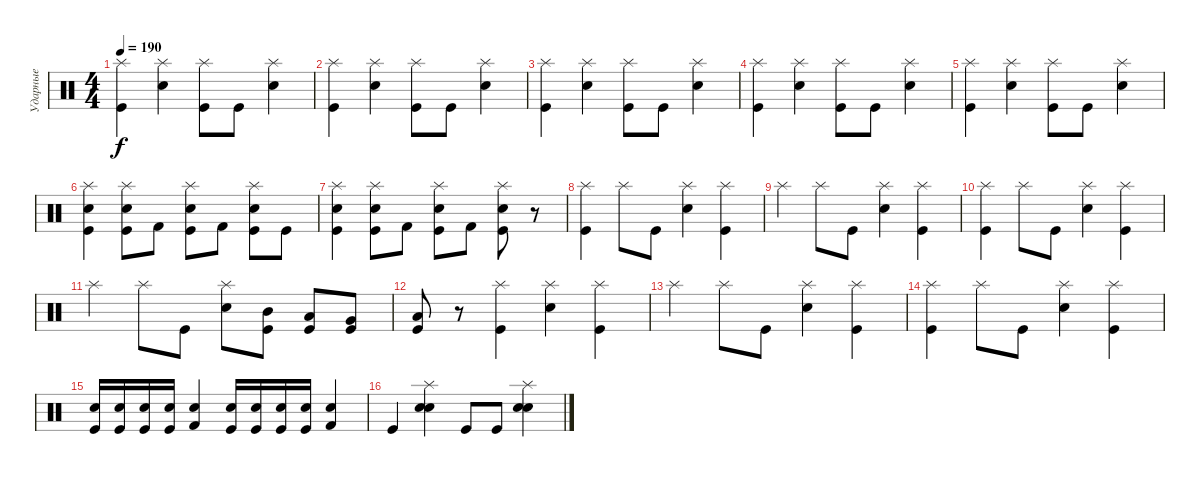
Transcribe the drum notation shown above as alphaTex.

\track ("Ударные" "Ударные") {instrument percussion}
\staff {score}
\articulation defaults
\ts (4 4)
\tempo 190
\clef neutral
\ks c
("Splash (hit)" "Kick (hit)").4{dy f} ("Splash (hit)" "Electric Snare (hit)").4 ("Splash (hit)" "Kick (hit)").8 "Kick (hit)".8 ("Splash (hit)" "Electric Snare (hit)").4 |
("Splash (hit)" "Kick (hit)").4 ("Splash (hit)" "Electric Snare (hit)").4 ("Splash (hit)" "Kick (hit)").8 "Kick (hit)".8 ("Splash (hit)" "Electric Snare (hit)").4 |
("Splash (hit)" "Kick (hit)").4 ("Splash (hit)" "Electric Snare (hit)").4 ("Splash (hit)" "Kick (hit)").8 "Kick (hit)".8 ("Splash (hit)" "Electric Snare (hit)").4 |
("Splash (hit)" "Kick (hit)").4 ("Splash (hit)" "Electric Snare (hit)").4 ("Splash (hit)" "Kick (hit)").8 "Kick (hit)".8 ("Splash (hit)" "Electric Snare (hit)").4 |
("Splash (hit)" "Kick (hit)").4 ("Splash (hit)" "Electric Snare (hit)").4 ("Splash (hit)" "Kick (hit)").8 "Kick (hit)".8 ("Splash (hit)" "Electric Snare (hit)").4 |
("Splash (hit)" "Electric Snare (hit)" "Kick (hit)").4 ("Splash (hit)" "Electric Snare (hit)" "Kick (hit)").8 "Kick (hit) 2".8 ("Splash (hit)" "Electric Snare (hit)" "Kick (hit)").8 "Kick (hit) 2".8 ("Splash (hit)" "Electric Snare (hit)" "Kick (hit)").8 "Kick (hit)".8 |
("Splash (hit)" "Electric Snare (hit)" "Kick (hit)").4 ("Splash (hit)" "Electric Snare (hit)" "Kick (hit)").8 "Kick (hit) 2".8 ("Splash (hit)" "Electric Snare (hit)" "Kick (hit)").8 "Kick (hit) 2".8 ("Splash (hit)" "Electric Snare (hit)" "Kick (hit)").8 r.8 |
("Splash (hit)" "Kick (hit)").4 "Splash (hit)".8 "Kick (hit)".8 ("Splash (hit)" "Electric Snare (hit)").4 ("Splash (hit)" "Kick (hit)").4 |
"Splash (hit)".4 "Splash (hit)".8 "Kick (hit)".8 ("Splash (hit)" "Electric Snare (hit)").4 ("Splash (hit)" "Kick (hit)").4 |
("Splash (hit)" "Kick (hit)").4 "Splash (hit)".8 "Kick (hit)".8 ("Splash (hit)" "Electric Snare (hit)").4 ("Splash (hit)" "Kick (hit)").4 |
"Splash (hit)".4 "Splash (hit)".8 "Kick (hit)".8 ("Splash (hit)" "Electric Snare (hit)").8 ("Mid Tom (hit)" "Kick (hit)").8 ("Low Tom (hit)" "Kick (hit)").8 ("Very Low Tom (hit)" "Kick (hit)").8 |
("Low Floor Tom (hit)" "Kick (hit)").8 r.8 ("Splash (hit)" "Kick (hit)").4 ("Splash (hit)" "Electric Snare (hit)").4 ("Splash (hit)" "Kick (hit)").4 |
"Splash (hit)".4 "Splash (hit)".8 "Kick (hit)".8 ("Splash (hit)" "Electric Snare (hit)").4 ("Splash (hit)" "Kick (hit)").4 |
("Splash (hit)" "Kick (hit)").4 "Splash (hit)".8 "Kick (hit)".8 ("Splash (hit)" "Electric Snare (hit)").4 ("Splash (hit)" "Kick (hit)").4 |
("Electric Snare (hit)" "Kick (hit)").16 ("Electric Snare (hit)" "Kick (hit)").16 ("Electric Snare (hit)" "Kick (hit)").16 ("Electric Snare (hit)" "Kick (hit)").16 ("Electric Snare (hit)" "Kick (hit) 2").4 ("Electric Snare (hit)" "Kick (hit)").16 ("Electric Snare (hit)" "Kick (hit)").16 ("Electric Snare (hit)" "Kick (hit)").16 ("Electric Snare (hit)" "Kick (hit)").16 ("Electric Snare (hit)" "Kick (hit) 2").4 |
"Kick (hit)".4 ("Splash (hit)" "Snare (hit) 2" "Electric Snare (hit)").4 "Kick (hit)".8 "Kick (hit)".8 ("Splash (hit)" "Snare (hit) 2" "Electric Snare (hit)").4
